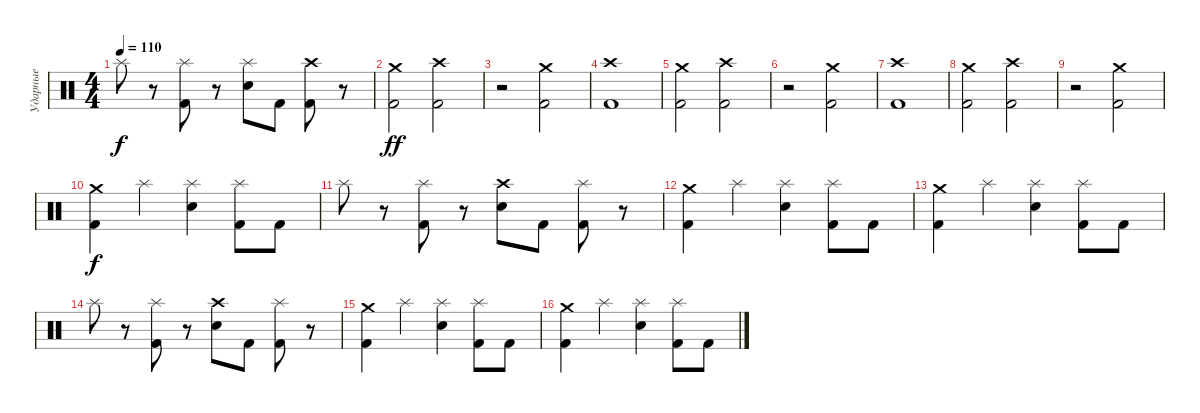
\track ("Ударные" "Ударные") {instrument percussion}
\staff {score}
\articulation defaults
\ts (4 4)
\tempo 110
\clef neutral
\ks c "Splash (hit)".8{dy f}
r.8 ("Splash (hit)" "Kick (hit) 2").8 r.8 ("Splash (hit)" "Electric Snare (hit)").8 "Kick (hit) 2".8 ("Crash high (hit)" "Kick (hit) 2").8 r.8 |
("Crash medium (hit)" "Kick (hit) 2").2{dy ff} ("Crash high (hit)" "Kick (hit) 2").2 |
r.2 ("Crash medium (hit)" "Kick (hit) 2").2 |
("Crash high (hit)" "Kick (hit) 2").1 |
("Crash medium (hit)" "Kick (hit) 2").2 ("Crash high (hit)" "Kick (hit) 2").2 |
r.2 ("Crash medium (hit)" "Kick (hit) 2").2 |
("Crash high (hit)" "Kick (hit) 2").1 |
("Crash medium (hit)" "Kick (hit) 2").2 ("Crash high (hit)" "Kick (hit) 2").2 |
r.2 ("Crash medium (hit)" "Kick (hit) 2").2 |
("Crash medium (hit)" "Kick (hit) 2").4{dy f} "Splash (hit)".4 ("Splash (hit)" "Electric Snare (hit)").4 ("Splash (hit)" "Kick (hit) 2").8 "Kick (hit) 2".8 |
"Splash (hit)".8 r.8 ("Splash (hit)" "Kick (hit) 2").8 r.8 ("Crash high (hit)" "Electric Snare (hit)").8 "Kick (hit) 2".8 ("Splash (hit)" "Kick (hit) 2").8 r.8 |
("Crash medium (hit)" "Kick (hit) 2").4 "Splash (hit)".4 ("Splash (hit)" "Electric Snare (hit)").4 ("Splash (hit)" "Kick (hit) 2").8 "Kick (hit) 2".8 |
("Crash medium (hit)" "Kick (hit) 2").4 "Splash (hit)".4 ("Splash (hit)" "Electric Snare (hit)").4 ("Splash (hit)" "Kick (hit) 2").8 "Kick (hit) 2".8 |
"Splash (hit)".8 r.8 ("Splash (hit)" "Kick (hit) 2").8 r.8 ("Crash high (hit)" "Electric Snare (hit)").8 "Kick (hit) 2".8 ("Splash (hit)" "Kick (hit) 2").8 r.8 |
("Crash medium (hit)" "Kick (hit) 2").4 "Splash (hit)".4 ("Splash (hit)" "Electric Snare (hit)").4 ("Splash (hit)" "Kick (hit) 2").8 "Kick (hit) 2".8 |
("Crash medium (hit)" "Kick (hit) 2").4 "Splash (hit)".4 ("Splash (hit)" "Electric Snare (hit)").4 ("Splash (hit)" "Kick (hit) 2").8 "Kick (hit) 2".8
